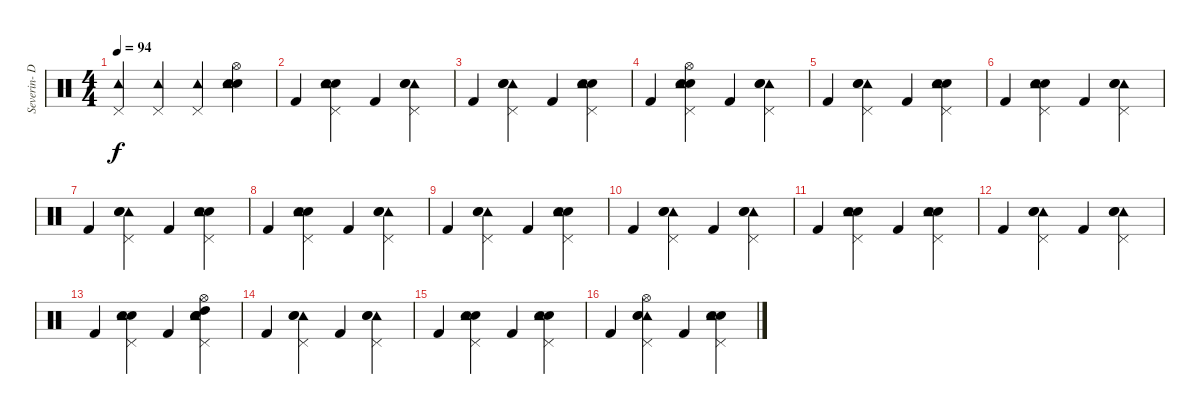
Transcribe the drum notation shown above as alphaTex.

\track ("Severin- Drums" "Severin- D") {instrument percussion}
\staff {score}
\articulation defaults
\ts (4 4)
\tempo 94
\clef neutral
\ks c
("Tambourine (hit)" "Pedal Hi-Hat (hit)").4{dy f} ("Pedal Hi-Hat (hit)" "Tambourine (hit)").4 ("Pedal Hi-Hat (hit)" "Tambourine (hit)").4 ("Snare (hit) 2" "Electric Snare (hit)" "Hi-Hat (open)" "Tambourine (hit)").4 |
"Kick (hit) 2".4 ("Snare (hit) 2" "Electric Snare (hit)" "Pedal Hi-Hat (hit)" "Tambourine (hit)").4 "Kick (hit) 2".4 ("Tambourine (hit)" "Pedal Hi-Hat (hit)" "Electric Snare (hit)" "Snare (hit) 2").4 |
"Kick (hit) 2".4 ("Tambourine (hit)" "Pedal Hi-Hat (hit)" "Electric Snare (hit)" "Snare (hit) 2").4 "Kick (hit) 2".4 ("Pedal Hi-Hat (hit)" "Snare (hit) 2" "Electric Snare (hit)" "Tambourine (hit)").4 |
"Kick (hit) 2".4 ("Snare (hit) 2" "Electric Snare (hit)" "Pedal Hi-Hat (hit)" "Tambourine (hit)" "Hi-Hat (open)").4 "Kick (hit) 2".4 ("Tambourine (hit)" "Pedal Hi-Hat (hit)" "Electric Snare (hit)" "Snare (hit) 2").4 |
"Kick (hit) 2".4 ("Tambourine (hit)" "Pedal Hi-Hat (hit)" "Electric Snare (hit)" "Snare (hit) 2").4 "Kick (hit) 2".4 ("Pedal Hi-Hat (hit)" "Snare (hit) 2" "Electric Snare (hit)" "Tambourine (hit)").4 |
"Kick (hit) 2".4 ("Snare (hit) 2" "Electric Snare (hit)" "Pedal Hi-Hat (hit)" "Tambourine (hit)").4 "Kick (hit) 2".4 ("Tambourine (hit)" "Pedal Hi-Hat (hit)" "Electric Snare (hit)" "Snare (hit) 2").4 |
"Kick (hit) 2".4 ("Tambourine (hit)" "Pedal Hi-Hat (hit)" "Electric Snare (hit)" "Snare (hit) 2").4 "Kick (hit) 2".4 ("Pedal Hi-Hat (hit)" "Snare (hit) 2" "Electric Snare (hit)" "Tambourine (hit)").4 |
"Kick (hit) 2".4 ("Snare (hit) 2" "Electric Snare (hit)" "Pedal Hi-Hat (hit)" "Tambourine (hit)").4 "Kick (hit) 2".4 ("Tambourine (hit)" "Pedal Hi-Hat (hit)" "Electric Snare (hit)" "Snare (hit) 2").4 |
"Kick (hit) 2".4 ("Tambourine (hit)" "Pedal Hi-Hat (hit)" "Electric Snare (hit)" "Snare (hit) 2").4 "Kick (hit) 2".4 ("Pedal Hi-Hat (hit)" "Snare (hit) 2" "Electric Snare (hit)" "Tambourine (hit)").4 |
"Kick (hit) 2".4 ("Tambourine (hit)" "Pedal Hi-Hat (hit)" "Electric Snare (hit)" "Snare (hit) 2").4 "Kick (hit) 2".4 ("Tambourine (hit)" "Pedal Hi-Hat (hit)" "Electric Snare (hit)" "Snare (hit) 2").4 |
"Kick (hit) 2".4 ("Snare (hit) 2" "Electric Snare (hit)" "Pedal Hi-Hat (hit)" "Tambourine (hit)").4 "Kick (hit) 2".4 ("Pedal Hi-Hat (hit)" "Snare (hit) 2" "Electric Snare (hit)" "Tambourine (hit)").4 |
"Kick (hit) 2".4 ("Tambourine (hit)" "Pedal Hi-Hat (hit)" "Electric Snare (hit)" "Snare (hit) 2").4 "Kick (hit) 2".4 ("Tambourine (hit)" "Pedal Hi-Hat (hit)" "Electric Snare (hit)" "Snare (hit) 2").4 |
"Kick (hit) 2".4 ("Snare (hit) 2" "Electric Snare (hit)" "Pedal Hi-Hat (hit)" "Tambourine (hit)").4 "Kick (hit) 2".4 ("High Tom (hit)" "Hi-Hat (open)" "Pedal Hi-Hat (hit)" "Snare (hit) 2" "Electric Snare (hit)" "Tambourine (hit)").4 |
"Kick (hit) 2".4 ("Tambourine (hit)" "Pedal Hi-Hat (hit)" "Electric Snare (hit)" "Snare (hit) 2").4 "Kick (hit) 2".4 ("Tambourine (hit)" "Pedal Hi-Hat (hit)" "Electric Snare (hit)" "Snare (hit) 2").4 |
"Kick (hit) 2".4 ("Snare (hit) 2" "Electric Snare (hit)" "Pedal Hi-Hat (hit)" "Tambourine (hit)").4 "Kick (hit) 2".4 ("Pedal Hi-Hat (hit)" "Snare (hit) 2" "Electric Snare (hit)" "Tambourine (hit)").4 |
"Kick (hit) 2".4 ("Hi-Hat (open)" "Tambourine (hit)" "Pedal Hi-Hat (hit)" "Electric Snare (hit)" "Snare (hit) 2").4 "Kick (hit) 2".4 ("Snare (hit) 2" "Electric Snare (hit)" "Pedal Hi-Hat (hit)" "Tambourine (hit)").4
